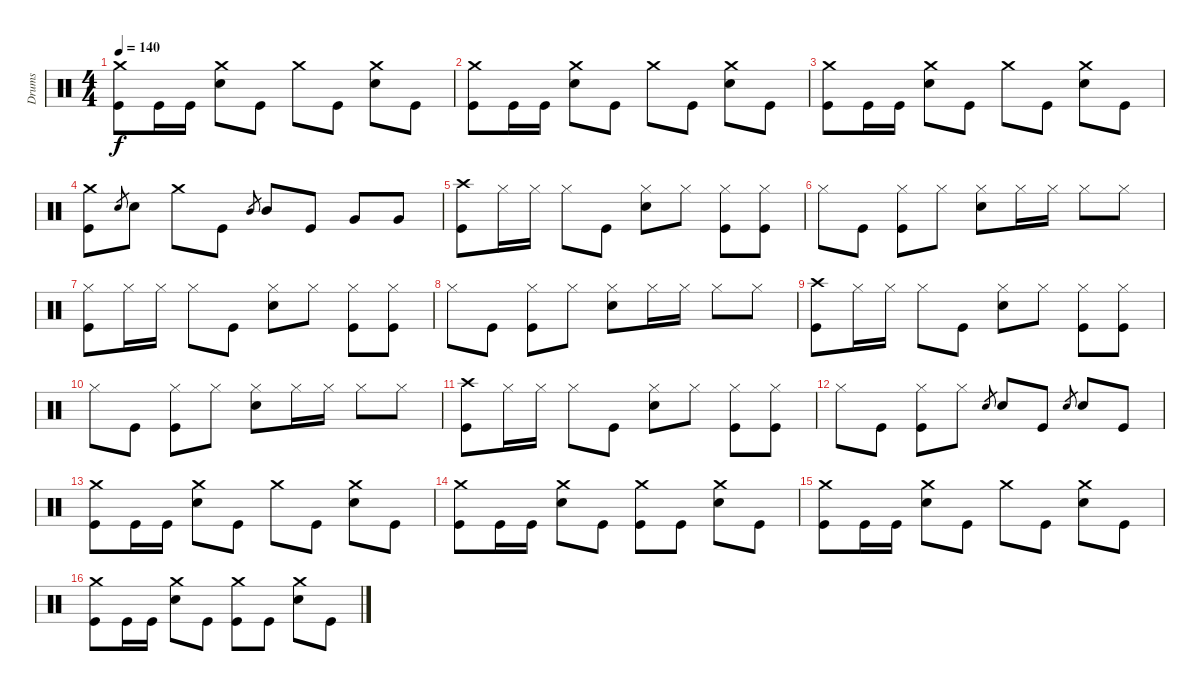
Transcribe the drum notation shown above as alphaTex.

\track ("Drums" "Drums") {instrument percussion}
\staff {score}
\articulation defaults
\ts (4 4)
\tempo 140
\clef neutral
\ks c
("Crash medium (hit)" "Kick (hit)").8{dy f} "Kick (hit)".16 "Kick (hit)".16 ("Crash medium (hit)" "Snare (hit) 2").8 "Kick (hit)".8 "Crash medium (hit)".8 "Kick (hit)".8 ("Crash medium (hit)" "Snare (hit) 2").8 "Kick (hit)".8 |
("Crash medium (hit)" "Kick (hit)").8 "Kick (hit)".16 "Kick (hit)".16 ("Crash medium (hit)" "Snare (hit) 2").8 "Kick (hit)".8 "Crash medium (hit)".8 "Kick (hit)".8 ("Crash medium (hit)" "Snare (hit) 2").8 "Kick (hit)".8 |
("Crash medium (hit)" "Kick (hit)").8 "Kick (hit)".16 "Kick (hit)".16 ("Crash medium (hit)" "Snare (hit) 2").8 "Kick (hit)".8 "Crash medium (hit)".8 "Kick (hit)".8 ("Crash medium (hit)" "Snare (hit) 2").8 "Kick (hit)".8 |
("Crash medium (hit)" "Kick (hit)").8 "Snare (hit) 2".8{gr} "Snare (hit) 2".8 "Crash medium (hit)".8 "Kick (hit)".8 "Mid Tom (hit)".8{gr} "Mid Tom (hit)".8 "Kick (hit)".8 "Very Low Tom (hit)".8 "Very Low Tom (hit)".8 |
("Crash high (hit)" "Kick (hit)").8 "Hi-Hat (closed)".16 "Hi-Hat (closed)".16 "Hi-Hat (closed)".8 "Kick (hit)".8 ("Hi-Hat (closed)" "Snare (hit) 2").8 "Hi-Hat (closed)".8 ("Hi-Hat (closed)" "Kick (hit)").8 ("Hi-Hat (closed)" "Kick (hit)").8 |
"Hi-Hat (closed)".8 "Kick (hit)".8 ("Hi-Hat (closed)" "Kick (hit)").8 "Hi-Hat (closed)".8 ("Hi-Hat (closed)" "Snare (hit) 2").8 "Hi-Hat (closed)".16 "Hi-Hat (closed)".16 "Hi-Hat (closed)".8 "Hi-Hat (closed)".8 |
("Hi-Hat (closed)" "Kick (hit)").8 "Hi-Hat (closed)".16 "Hi-Hat (closed)".16 "Hi-Hat (closed)".8 "Kick (hit)".8 ("Hi-Hat (closed)" "Snare (hit) 2").8 "Hi-Hat (closed)".8 ("Hi-Hat (closed)" "Kick (hit)").8 ("Hi-Hat (closed)" "Kick (hit)").8 |
"Hi-Hat (closed)".8 "Kick (hit)".8 ("Hi-Hat (closed)" "Kick (hit)").8 "Hi-Hat (closed)".8 ("Hi-Hat (closed)" "Snare (hit) 2").8 "Hi-Hat (closed)".16 "Hi-Hat (closed)".16 "Hi-Hat (closed)".8 "Hi-Hat (closed)".8 |
("Crash high (hit)" "Kick (hit)").8 "Hi-Hat (closed)".16 "Hi-Hat (closed)".16 "Hi-Hat (closed)".8 "Kick (hit)".8 ("Hi-Hat (closed)" "Snare (hit) 2").8 "Hi-Hat (closed)".8 ("Hi-Hat (closed)" "Kick (hit)").8 ("Hi-Hat (closed)" "Kick (hit)").8 |
"Hi-Hat (closed)".8 "Kick (hit)".8 ("Hi-Hat (closed)" "Kick (hit)").8 "Hi-Hat (closed)".8 ("Hi-Hat (closed)" "Snare (hit) 2").8 "Hi-Hat (closed)".16 "Hi-Hat (closed)".16 "Hi-Hat (closed)".8 "Hi-Hat (closed)".8 |
("Crash high (hit)" "Kick (hit)").8 "Hi-Hat (closed)".16 "Hi-Hat (closed)".16 "Hi-Hat (closed)".8 "Kick (hit)".8 ("Hi-Hat (closed)" "Snare (hit) 2").8 "Hi-Hat (closed)".8 ("Hi-Hat (closed)" "Kick (hit)").8 ("Hi-Hat (closed)" "Kick (hit)").8 |
"Hi-Hat (closed)".8 "Kick (hit)".8 ("Hi-Hat (closed)" "Kick (hit)").8 "Hi-Hat (closed)".8 "Snare (hit) 2".8{gr} "Snare (hit) 2".8 "Kick (hit)".8 "Snare (hit) 2".8{gr} "Snare (hit) 2".8 "Kick (hit)".8 |
("Crash medium (hit)" "Kick (hit)").8 "Kick (hit)".16 "Kick (hit)".16 ("Crash medium (hit)" "Snare (hit) 2").8 "Kick (hit)".8 "Crash medium (hit)".8 "Kick (hit)".8 ("Crash medium (hit)" "Snare (hit) 2").8 "Kick (hit)".8 |
("Crash medium (hit)" "Kick (hit)").8 "Kick (hit)".16 "Kick (hit)".16 ("Crash medium (hit)" "Snare (hit) 2").8 "Kick (hit)".8 ("Crash medium (hit)" "Kick (hit)").8 "Kick (hit)".8 ("Crash medium (hit)" "Snare (hit) 2").8 "Kick (hit)".8 |
("Crash medium (hit)" "Kick (hit)").8 "Kick (hit)".16 "Kick (hit)".16 ("Crash medium (hit)" "Snare (hit) 2").8 "Kick (hit)".8 "Crash medium (hit)".8 "Kick (hit)".8 ("Crash medium (hit)" "Snare (hit) 2").8 "Kick (hit)".8 |
("Crash medium (hit)" "Kick (hit)").8 "Kick (hit)".16 "Kick (hit)".16 ("Crash medium (hit)" "Snare (hit) 2").8 "Kick (hit)".8 ("Crash medium (hit)" "Kick (hit)").8 "Kick (hit)".8 ("Crash medium (hit)" "Snare (hit) 2").8 "Kick (hit)".8
